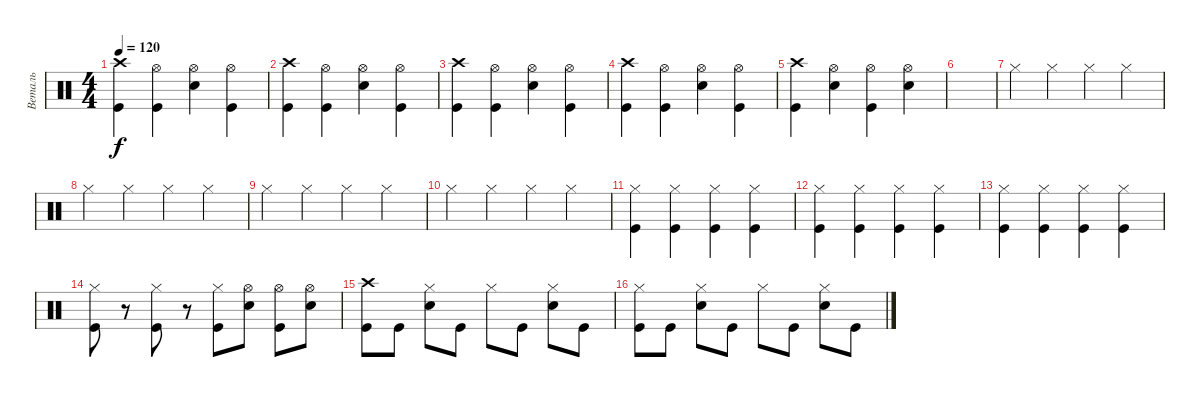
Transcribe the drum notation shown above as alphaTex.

\track ("Веталь" "Веталь") {instrument percussion}
\staff {score}
\articulation defaults
\ts (4 4)
\tempo 120
\clef neutral
\ks c
("Crash high (hit)" "Kick (hit)").4{dy f} ("Hi-Hat (open)" "Kick (hit)").4 ("Hi-Hat (open)" "Snare (hit) 2").4 ("Hi-Hat (open)" "Kick (hit)").4 |
("Crash high (hit)" "Kick (hit)").4 ("Hi-Hat (open)" "Kick (hit)").4 ("Hi-Hat (open)" "Snare (hit) 2").4 ("Hi-Hat (open)" "Kick (hit)").4 |
("Crash high (hit)" "Kick (hit)").4 ("Hi-Hat (open)" "Kick (hit)").4 ("Hi-Hat (open)" "Snare (hit) 2").4 ("Hi-Hat (open)" "Kick (hit)").4 |
("Crash high (hit)" "Kick (hit)").4 ("Hi-Hat (open)" "Kick (hit)").4 ("Hi-Hat (open)" "Snare (hit) 2").4 ("Hi-Hat (open)" "Kick (hit)").4 |
("Crash high (hit)" "Kick (hit)").4 ("Hi-Hat (open)" "Snare (hit) 2").4 ("Hi-Hat (open)" "Kick (hit)").4 ("Hi-Hat (open)" "Snare (hit) 2").4 |
|
"Hi-Hat (closed)".4 "Hi-Hat (closed)".4 "Hi-Hat (closed)".4 "Hi-Hat (closed)".4 |
"Hi-Hat (closed)".4 "Hi-Hat (closed)".4 "Hi-Hat (closed)".4 "Hi-Hat (closed)".4 |
"Hi-Hat (closed)".4 "Hi-Hat (closed)".4 "Hi-Hat (closed)".4 "Hi-Hat (closed)".4 |
"Hi-Hat (closed)".4 "Hi-Hat (closed)".4 "Hi-Hat (closed)".4 "Hi-Hat (closed)".4 |
("Hi-Hat (closed)" "Kick (hit)").4 ("Hi-Hat (closed)" "Kick (hit)").4 ("Hi-Hat (closed)" "Kick (hit)").4 ("Hi-Hat (closed)" "Kick (hit)").4 |
("Hi-Hat (closed)" "Kick (hit)").4 ("Hi-Hat (closed)" "Kick (hit)").4 ("Hi-Hat (closed)" "Kick (hit)").4 ("Hi-Hat (closed)" "Kick (hit)").4 |
("Hi-Hat (closed)" "Kick (hit)").4 ("Hi-Hat (closed)" "Kick (hit)").4 ("Hi-Hat (closed)" "Kick (hit)").4 ("Hi-Hat (closed)" "Kick (hit)").4 |
("Hi-Hat (closed)" "Kick (hit)").8 r.8 ("Hi-Hat (closed)" "Kick (hit)").8 r.8 ("Hi-Hat (closed)" "Kick (hit)").8 ("Hi-Hat (open)" "Snare (hit) 2").8 ("Hi-Hat (open)" "Kick (hit)").8 ("Hi-Hat (open)" "Snare (hit) 2").8 |
("Crash high (hit)" "Kick (hit)").8 "Kick (hit)".8 ("Hi-Hat (closed)" "Snare (hit) 2").8 "Kick (hit)".8 "Hi-Hat (closed)".8 "Kick (hit)".8 ("Hi-Hat (closed)" "Snare (hit) 2").8 "Kick (hit)".8 |
("Hi-Hat (closed)" "Kick (hit)").8 "Kick (hit)".8 ("Hi-Hat (closed)" "Snare (hit) 2").8 "Kick (hit)".8 "Hi-Hat (closed)".8 "Kick (hit)".8 ("Hi-Hat (closed)" "Snare (hit) 2").8 "Kick (hit)".8
